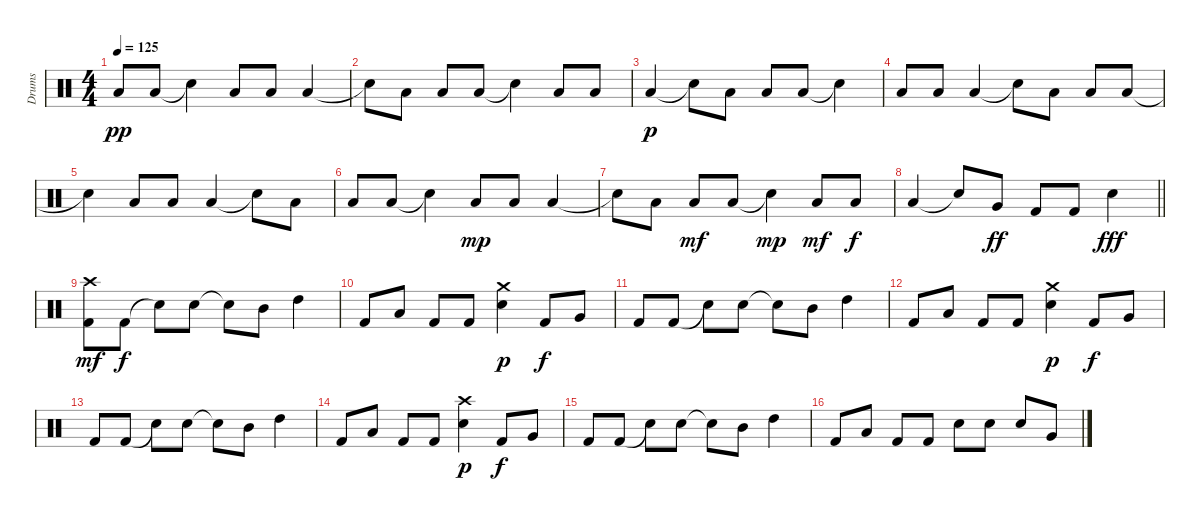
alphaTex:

\track ("Drums" "Drums") {instrument percussion}
\staff {score}
\articulation defaults
\ts (4 4)
\tempo 125
\clef neutral
\ks c "Low Tom (hit)".8{dy pp} "Low Tom (hit)".8 "Snare (hit)"{t}.4 "Low Tom (hit)".8 "Low Tom (hit)".8 "Low Tom (hit)".4
|
"Snare (hit)"{t}.8 "Low Tom (hit)".8 "Low Tom (hit)".8 "Low Tom (hit)".8 "Snare (hit)"{t}.4 "Low Tom (hit)".8 "Low Tom (hit)".8 |
"Low Tom (hit)".4{dy p} "Snare (hit)"{t}.8 "Low Tom (hit)".8 "Low Tom (hit)".8 "Low Tom (hit)".8 "Snare (hit)"{t}.4 |
"Low Tom (hit)".8 "Low Tom (hit)".8 "Low Tom (hit)".4 "Snare (hit)"{t}.8 "Low Tom (hit)".8 "Low Tom (hit)".8 "Low Tom (hit)".8 |
"Snare (hit)"{t}.4 "Low Tom (hit)".8 "Low Tom (hit)".8 "Low Tom (hit)".4 "Snare (hit)"{t}.8 "Low Tom (hit)".8 |
"Low Tom (hit)".8 "Low Tom (hit)".8 "Snare (hit)"{t}.4 "Low Tom (hit)".8{dy mp} "Low Tom (hit)".8 "Low Tom (hit)".4 |
"Snare (hit)"{t}.8 "Low Tom (hit)".8 "Low Tom (hit)".8{dy mf} "Low Tom (hit)".8 "Snare (hit)"{t}.4{dy mp} "Low Tom (hit)".8{dy mf} "Low Tom (hit)".8{dy f} |
\barLineRight lightlight "Low Tom (hit)".4 "Snare (hit)"{t}.8 "Very Low Tom (hit)".8{dy ff} "Kick (hit) 2".8 "Kick (hit) 2".8 "Snare (hit) 2".4{dy fff}
|
\section ("" "")
("Crash high (hit)" "Kick (hit) 2").8{dy mf} "Kick (hit) 2".8{dy f} "Snare (hit)"{t}.8 "Snare (hit) 2".8 "Snare (hit)"{t}.8 "Mid Tom (hit)".8 "High Tom (hit)".4 |
"Kick (hit) 2".8 "Low Tom (hit)".8 "Kick (hit) 2".8 "Kick (hit) 2".8 ("Crash medium (hit)" "Snare (hit) 2").4{dy p} "Kick (hit) 2".8{dy f} "Very Low Tom (hit)".8 |
"Kick (hit) 2".8 "Kick (hit) 2".8 "Snare (hit)"{t}.8 "Snare (hit) 2".8 "Snare (hit)"{t}.8 "Mid Tom (hit)".8 "High Tom (hit)".4 |
"Kick (hit) 2".8 "Low Tom (hit)".8 "Kick (hit) 2".8 "Kick (hit) 2".8 ("Crash medium (hit)" "Snare (hit) 2").4{dy p} "Kick (hit) 2".8{dy f} "Very Low Tom (hit)".8 |
"Kick (hit) 2".8 "Kick (hit) 2".8 "Snare (hit)"{t}.8 "Snare (hit) 2".8 "Snare (hit)"{t}.8 "Mid Tom (hit)".8 "High Tom (hit)".4 |
"Kick (hit) 2".8 "Low Tom (hit)".8 "Kick (hit) 2".8 "Kick (hit) 2".8 ("Crash high (hit)" "Snare (hit) 2").4{dy p} "Kick (hit) 2".8{dy f} "Very Low Tom (hit)".8 |
"Kick (hit) 2".8 "Kick (hit) 2".8 "Snare (hit)"{t}.8 "Snare (hit) 2".8 "Snare (hit)"{t}.8 "Mid Tom (hit)".8 "High Tom (hit)".4 |
"Kick (hit) 2".8 "Low Tom (hit)".8 "Kick (hit) 2".8 "Kick (hit) 2".8 "Snare (hit) 2".8 "Snare (hit) 2".8 "Snare (hit) 2".8 "Very Low Tom (hit)".8
